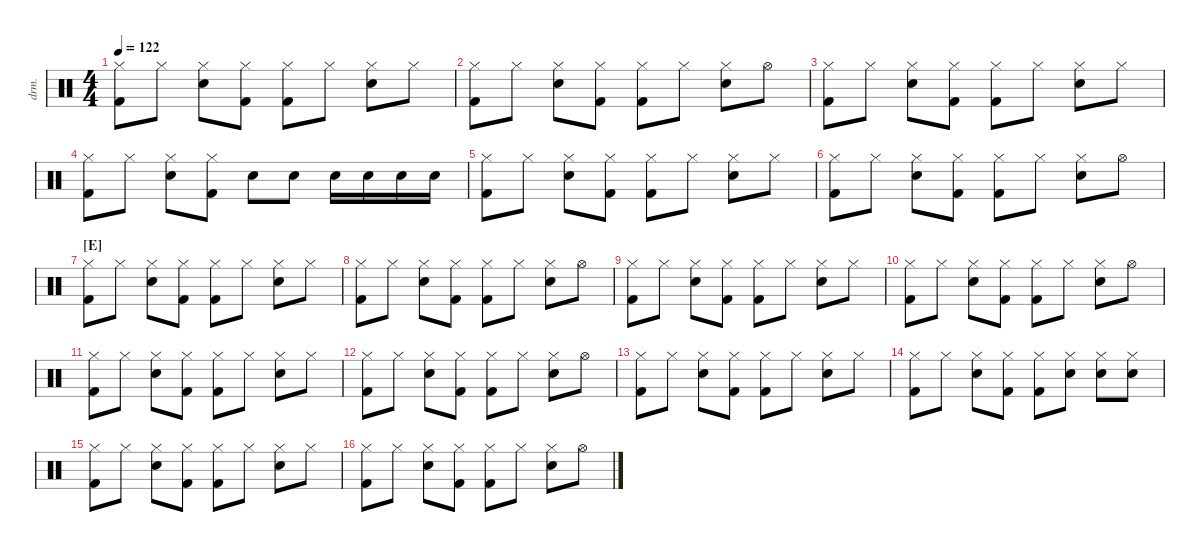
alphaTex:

\defaultSystemsLayout 4
\hideDynamics
\bracketExtendMode nobrackets
\track ("Drumkit" "drm.") {defaultSystemsLayout 4 instrument percussion}
\staff {score}
\articulation defaults
\ts (4 4)
\tempo 122
\clef neutral
\ks c
("Hi-Hat (closed)" "Kick (hit) 2").8{dy f beam Down} "Hi-Hat (closed)".8{beam Down} ("Hi-Hat (closed)" "Snare (hit) 2").8{beam Down} ("Hi-Hat (closed)" "Kick (hit) 2").8{beam Down} ("Hi-Hat (closed)" "Kick (hit) 2").8{beam Down} "Hi-Hat (closed)".8{beam Down} ("Hi-Hat (closed)" "Snare (hit) 2").8{beam Down} "Hi-Hat (closed)".8{beam Down} |
("Hi-Hat (closed)" "Kick (hit) 2").8{beam Down} "Hi-Hat (closed)".8{beam Down} ("Hi-Hat (closed)" "Snare (hit) 2").8{beam Down} ("Hi-Hat (closed)" "Kick (hit) 2").8{beam Down} ("Hi-Hat (closed)" "Kick (hit) 2").8{beam Down} "Hi-Hat (closed)".8{beam Down} ("Hi-Hat (closed)" "Snare (hit) 2").8{beam Down} "Hi-Hat (open)".8{beam Down} |
("Hi-Hat (closed)" "Kick (hit) 2").8{beam Down} "Hi-Hat (closed)".8{beam Down} ("Hi-Hat (closed)" "Snare (hit) 2").8{beam Down} ("Hi-Hat (closed)" "Kick (hit) 2").8{beam Down} ("Hi-Hat (closed)" "Kick (hit) 2").8{beam Down} "Hi-Hat (closed)".8{beam Down} ("Hi-Hat (closed)" "Snare (hit) 2").8{beam Down} "Hi-Hat (closed)".8{beam Down} |
("Hi-Hat (closed)" "Kick (hit) 2").8{beam Down} "Hi-Hat (closed)".8{beam Down} ("Hi-Hat (closed)" "Snare (hit) 2").8{beam Down} ("Hi-Hat (closed)" "Kick (hit) 2").8{beam Down} "Snare (hit) 2".8{beam Down} "Snare (hit) 2".8{beam Down} "Snare (hit) 2".16{beam Down} "Snare (hit) 2".16{beam Down} "Snare (hit) 2".16{beam Down} "Snare (hit) 2".16{beam Down} |
("Hi-Hat (closed)" "Kick (hit) 2").8{beam Down} "Hi-Hat (closed)".8{beam Down} ("Hi-Hat (closed)" "Snare (hit) 2").8{beam Down} ("Hi-Hat (closed)" "Kick (hit) 2").8{beam Down} ("Hi-Hat (closed)" "Kick (hit) 2").8{beam Down} "Hi-Hat (closed)".8{beam Down} ("Hi-Hat (closed)" "Snare (hit) 2").8{beam Down} "Hi-Hat (closed)".8{beam Down} |
("Hi-Hat (closed)" "Kick (hit) 2").8{beam Down} "Hi-Hat (closed)".8{beam Down} ("Hi-Hat (closed)" "Snare (hit) 2").8{beam Down} ("Hi-Hat (closed)" "Kick (hit) 2").8{beam Down} ("Hi-Hat (closed)" "Kick (hit) 2").8{beam Down} "Hi-Hat (closed)".8{beam Down} ("Hi-Hat (closed)" "Snare (hit) 2").8{beam Down} "Hi-Hat (open)".8{beam Down} |
\section ("E" "")
("Hi-Hat (closed)" "Kick (hit) 2").8{beam Down} "Hi-Hat (closed)".8{beam Down} ("Hi-Hat (closed)" "Snare (hit) 2").8{beam Down} ("Hi-Hat (closed)" "Kick (hit) 2").8{beam Down} ("Hi-Hat (closed)" "Kick (hit) 2").8{beam Down} "Hi-Hat (closed)".8{beam Down} ("Hi-Hat (closed)" "Snare (hit) 2").8{beam Down} "Hi-Hat (closed)".8{beam Down} |
("Hi-Hat (closed)" "Kick (hit) 2").8{beam Down} "Hi-Hat (closed)".8{beam Down} ("Hi-Hat (closed)" "Snare (hit) 2").8{beam Down} ("Hi-Hat (closed)" "Kick (hit) 2").8{beam Down} ("Hi-Hat (closed)" "Kick (hit) 2").8{beam Down} "Hi-Hat (closed)".8{beam Down} ("Hi-Hat (closed)" "Snare (hit) 2").8{beam Down} "Hi-Hat (open)".8{beam Down} |
("Hi-Hat (closed)" "Kick (hit) 2").8{beam Down} "Hi-Hat (closed)".8{beam Down} ("Hi-Hat (closed)" "Snare (hit) 2").8{beam Down} ("Hi-Hat (closed)" "Kick (hit) 2").8{beam Down} ("Hi-Hat (closed)" "Kick (hit) 2").8{beam Down} "Hi-Hat (closed)".8{beam Down} ("Hi-Hat (closed)" "Snare (hit) 2").8{beam Down} "Hi-Hat (closed)".8{beam Down} |
("Hi-Hat (closed)" "Kick (hit) 2").8{beam Down} "Hi-Hat (closed)".8{beam Down} ("Hi-Hat (closed)" "Snare (hit) 2").8{beam Down} ("Hi-Hat (closed)" "Kick (hit) 2").8{beam Down} ("Hi-Hat (closed)" "Kick (hit) 2").8{beam Down} "Hi-Hat (closed)".8{beam Down} ("Hi-Hat (closed)" "Snare (hit) 2").8{beam Down} "Hi-Hat (open)".8{beam Down} |
("Hi-Hat (closed)" "Kick (hit) 2").8{beam Down} "Hi-Hat (closed)".8{beam Down} ("Hi-Hat (closed)" "Snare (hit) 2").8{beam Down} ("Hi-Hat (closed)" "Kick (hit) 2").8{beam Down} ("Hi-Hat (closed)" "Kick (hit) 2").8{beam Down} "Hi-Hat (closed)".8{beam Down} ("Hi-Hat (closed)" "Snare (hit) 2").8{beam Down} "Hi-Hat (closed)".8{beam Down} |
("Hi-Hat (closed)" "Kick (hit) 2").8{beam Down} "Hi-Hat (closed)".8{beam Down} ("Hi-Hat (closed)" "Snare (hit) 2").8{beam Down} ("Hi-Hat (closed)" "Kick (hit) 2").8{beam Down} ("Hi-Hat (closed)" "Kick (hit) 2").8{beam Down} "Hi-Hat (closed)".8{beam Down} ("Hi-Hat (closed)" "Snare (hit) 2").8{beam Down} "Hi-Hat (open)".8{beam Down} |
("Hi-Hat (closed)" "Kick (hit) 2").8{beam Down} "Hi-Hat (closed)".8{beam Down} ("Hi-Hat (closed)" "Snare (hit) 2").8{beam Down} ("Hi-Hat (closed)" "Kick (hit) 2").8{beam Down} ("Hi-Hat (closed)" "Kick (hit) 2").8{beam Down} "Hi-Hat (closed)".8{beam Down} ("Hi-Hat (closed)" "Snare (hit) 2").8{beam Down} "Hi-Hat (closed)".8{beam Down} |
("Hi-Hat (closed)" "Kick (hit) 2").8{beam Down} "Hi-Hat (closed)".8{beam Down} ("Hi-Hat (closed)" "Snare (hit) 2").8{beam Down} ("Hi-Hat (closed)" "Kick (hit) 2").8{beam Down} ("Hi-Hat (closed)" "Kick (hit) 2").8{beam Down} ("Hi-Hat (closed)" "Snare (hit) 2").8{beam Down} ("Hi-Hat (closed)" "Snare (hit) 2").8{beam Down} ("Hi-Hat (closed)" "Snare (hit) 2").8{beam Down} |
("Hi-Hat (closed)" "Kick (hit) 2").8{beam Down} "Hi-Hat (closed)".8{beam Down} ("Hi-Hat (closed)" "Snare (hit) 2").8{beam Down} ("Hi-Hat (closed)" "Kick (hit) 2").8{beam Down} ("Hi-Hat (closed)" "Kick (hit) 2").8{beam Down} "Hi-Hat (closed)".8{beam Down} ("Hi-Hat (closed)" "Snare (hit) 2").8{beam Down} "Hi-Hat (closed)".8{beam Down} |
("Hi-Hat (closed)" "Kick (hit) 2").8{beam Down} "Hi-Hat (closed)".8{beam Down} ("Hi-Hat (closed)" "Snare (hit) 2").8{beam Down} ("Hi-Hat (closed)" "Kick (hit) 2").8{beam Down} ("Hi-Hat (closed)" "Kick (hit) 2").8{beam Down} "Hi-Hat (closed)".8{beam Down} ("Hi-Hat (closed)" "Snare (hit) 2").8{beam Down} "Hi-Hat (open)".8{beam Down}
